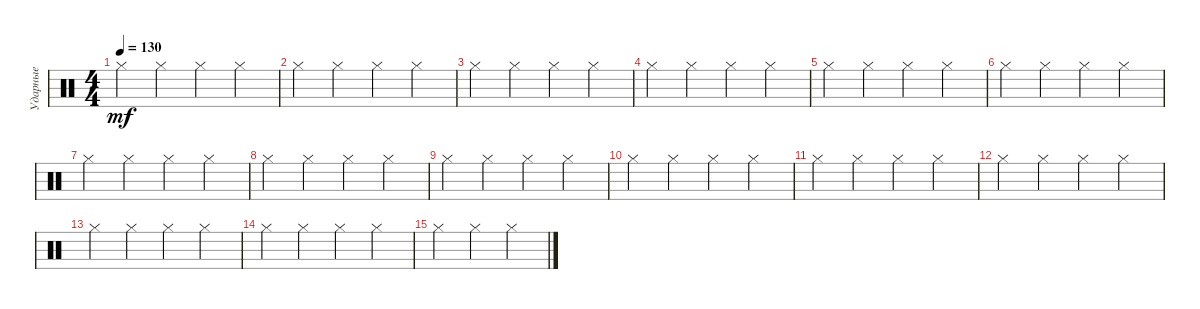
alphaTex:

\track ("Ударные" "Ударные") {instrument percussion}
\staff {score}
\articulation defaults
\ts (4 4)
\tempo 130
\clef neutral
\ks c "Hi-Hat (closed)".4{dy mf} "Hi-Hat (closed)".4 "Hi-Hat (closed)".4 "Hi-Hat (closed)".4
|
"Hi-Hat (closed)".4 "Hi-Hat (closed)".4 "Hi-Hat (closed)".4 "Hi-Hat (closed)".4 |
"Hi-Hat (closed)".4 "Hi-Hat (closed)".4 "Hi-Hat (closed)".4 "Hi-Hat (closed)".4 |
"Hi-Hat (closed)".4 "Hi-Hat (closed)".4 "Hi-Hat (closed)".4 "Hi-Hat (closed)".4 |
"Hi-Hat (closed)".4 "Hi-Hat (closed)".4 "Hi-Hat (closed)".4 "Hi-Hat (closed)".4 |
"Hi-Hat (closed)".4 "Hi-Hat (closed)".4 "Hi-Hat (closed)".4 "Hi-Hat (closed)".4 |
"Hi-Hat (closed)".4 "Hi-Hat (closed)".4 "Hi-Hat (closed)".4 "Hi-Hat (closed)".4 |
"Hi-Hat (closed)".4 "Hi-Hat (closed)".4 "Hi-Hat (closed)".4 "Hi-Hat (closed)".4 |
"Hi-Hat (closed)".4 "Hi-Hat (closed)".4 "Hi-Hat (closed)".4 "Hi-Hat (closed)".4 |
"Hi-Hat (closed)".4 "Hi-Hat (closed)".4 "Hi-Hat (closed)".4 "Hi-Hat (closed)".4 |
"Hi-Hat (closed)".4 "Hi-Hat (closed)".4 "Hi-Hat (closed)".4 "Hi-Hat (closed)".4 |
"Hi-Hat (closed)".4 "Hi-Hat (closed)".4 "Hi-Hat (closed)".4 "Hi-Hat (closed)".4 |
"Hi-Hat (closed)".4 "Hi-Hat (closed)".4 "Hi-Hat (closed)".4 "Hi-Hat (closed)".4 |
"Hi-Hat (closed)".4 "Hi-Hat (closed)".4 "Hi-Hat (closed)".4 "Hi-Hat (closed)".4 |
"Hi-Hat (closed)".4 "Hi-Hat (closed)".4 "Hi-Hat (closed)".4
